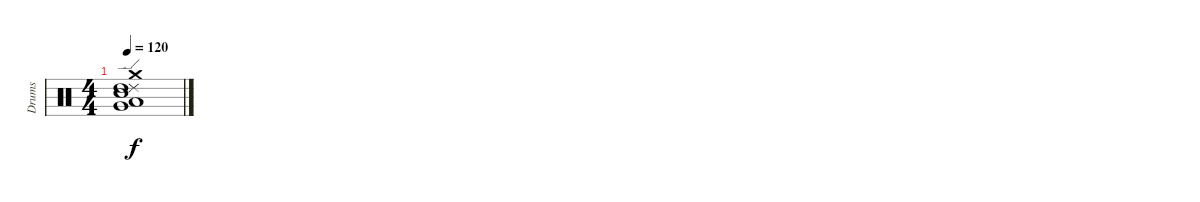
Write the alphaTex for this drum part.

\track ("Drums" "Drums") {instrument percussion}
\staff {score}
\articulation defaults
\ts (4 4)
\tempo 120
\clef neutral
\ks c
("Ride (edge) 2" "Crash medium (hit)" "Low Floor Tom (hit)" "Electric Snare (hit)" "Very Low Tom (hit)" "High Tom (hit)").1{dy f}
